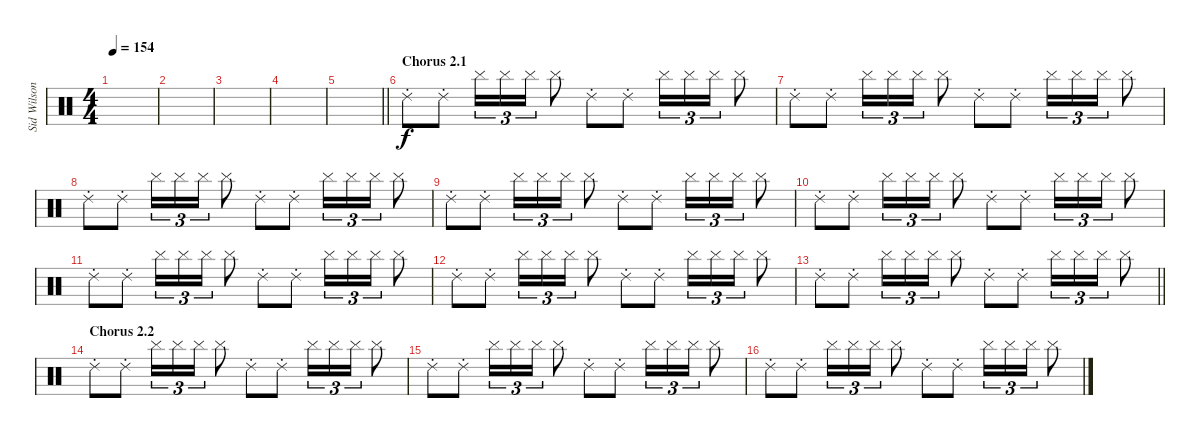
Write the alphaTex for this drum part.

\track ("Sid Wilson" "Sid Wilson") {instrument percussion}
\staff {score}
\articulation defaults
\ts (4 4)
\tempo 154
\clef neutral
\ks c
|
|
|
|
\barLineRight lightlight
|
\section ("" "Chorus 2.1")
"Ride (choke) 2".8 "Ride (choke) 2".8 "Cymbal (hit)".16{tu (3 2)} "Cymbal (hit)".16{tu (3 2)} "Cymbal (hit)".16{tu (3 2)} "Cymbal (hit)".8 "Ride (choke) 2".8 "Ride (choke) 2".8 "Cymbal (hit)".16{tu (3 2)} "Cymbal (hit)".16{tu (3 2)} "Cymbal (hit)".16{tu (3 2)} "Cymbal (hit)".8 |
"Ride (choke) 2".8 "Ride (choke) 2".8 "Cymbal (hit)".16{tu (3 2)} "Cymbal (hit)".16{tu (3 2)} "Cymbal (hit)".16{tu (3 2)} "Cymbal (hit)".8 "Ride (choke) 2".8 "Ride (choke) 2".8 "Cymbal (hit)".16{tu (3 2)} "Cymbal (hit)".16{tu (3 2)} "Cymbal (hit)".16{tu (3 2)} "Cymbal (hit)".8 |
"Ride (choke) 2".8 "Ride (choke) 2".8 "Cymbal (hit)".16{tu (3 2)} "Cymbal (hit)".16{tu (3 2)} "Cymbal (hit)".16{tu (3 2)} "Cymbal (hit)".8 "Ride (choke) 2".8 "Ride (choke) 2".8 "Cymbal (hit)".16{tu (3 2)} "Cymbal (hit)".16{tu (3 2)} "Cymbal (hit)".16{tu (3 2)} "Cymbal (hit)".8 |
"Ride (choke) 2".8 "Ride (choke) 2".8 "Cymbal (hit)".16{tu (3 2)} "Cymbal (hit)".16{tu (3 2)} "Cymbal (hit)".16{tu (3 2)} "Cymbal (hit)".8 "Ride (choke) 2".8 "Ride (choke) 2".8 "Cymbal (hit)".16{tu (3 2)} "Cymbal (hit)".16{tu (3 2)} "Cymbal (hit)".16{tu (3 2)} "Cymbal (hit)".8 |
"Ride (choke) 2".8 "Ride (choke) 2".8 "Cymbal (hit)".16{tu (3 2)} "Cymbal (hit)".16{tu (3 2)} "Cymbal (hit)".16{tu (3 2)} "Cymbal (hit)".8 "Ride (choke) 2".8 "Ride (choke) 2".8 "Cymbal (hit)".16{tu (3 2)} "Cymbal (hit)".16{tu (3 2)} "Cymbal (hit)".16{tu (3 2)} "Cymbal (hit)".8 |
"Ride (choke) 2".8 "Ride (choke) 2".8 "Cymbal (hit)".16{tu (3 2)} "Cymbal (hit)".16{tu (3 2)} "Cymbal (hit)".16{tu (3 2)} "Cymbal (hit)".8 "Ride (choke) 2".8 "Ride (choke) 2".8 "Cymbal (hit)".16{tu (3 2)} "Cymbal (hit)".16{tu (3 2)} "Cymbal (hit)".16{tu (3 2)} "Cymbal (hit)".8 |
"Ride (choke) 2".8 "Ride (choke) 2".8 "Cymbal (hit)".16{tu (3 2)} "Cymbal (hit)".16{tu (3 2)} "Cymbal (hit)".16{tu (3 2)} "Cymbal (hit)".8 "Ride (choke) 2".8 "Ride (choke) 2".8 "Cymbal (hit)".16{tu (3 2)} "Cymbal (hit)".16{tu (3 2)} "Cymbal (hit)".16{tu (3 2)} "Cymbal (hit)".8 |
\barLineRight lightlight "Ride (choke) 2".8 "Ride (choke) 2".8 "Cymbal (hit)".16{tu (3 2)} "Cymbal (hit)".16{tu (3 2)} "Cymbal (hit)".16{tu (3 2)} "Cymbal (hit)".8 "Ride (choke) 2".8 "Ride (choke) 2".8 "Cymbal (hit)".16{tu (3 2)} "Cymbal (hit)".16{tu (3 2)} "Cymbal (hit)".16{tu (3 2)} "Cymbal (hit)".8
|
\section ("" "Chorus 2.2")
"Ride (choke) 2".8 "Ride (choke) 2".8 "Cymbal (hit)".16{tu (3 2)} "Cymbal (hit)".16{tu (3 2)} "Cymbal (hit)".16{tu (3 2)} "Cymbal (hit)".8 "Ride (choke) 2".8 "Ride (choke) 2".8 "Cymbal (hit)".16{tu (3 2)} "Cymbal (hit)".16{tu (3 2)} "Cymbal (hit)".16{tu (3 2)} "Cymbal (hit)".8 |
"Ride (choke) 2".8 "Ride (choke) 2".8 "Cymbal (hit)".16{tu (3 2)} "Cymbal (hit)".16{tu (3 2)} "Cymbal (hit)".16{tu (3 2)} "Cymbal (hit)".8 "Ride (choke) 2".8 "Ride (choke) 2".8 "Cymbal (hit)".16{tu (3 2)} "Cymbal (hit)".16{tu (3 2)} "Cymbal (hit)".16{tu (3 2)} "Cymbal (hit)".8 |
"Ride (choke) 2".8 "Ride (choke) 2".8 "Cymbal (hit)".16{tu (3 2)} "Cymbal (hit)".16{tu (3 2)} "Cymbal (hit)".16{tu (3 2)} "Cymbal (hit)".8 "Ride (choke) 2".8 "Ride (choke) 2".8 "Cymbal (hit)".16{tu (3 2)} "Cymbal (hit)".16{tu (3 2)} "Cymbal (hit)".16{tu (3 2)} "Cymbal (hit)".8
